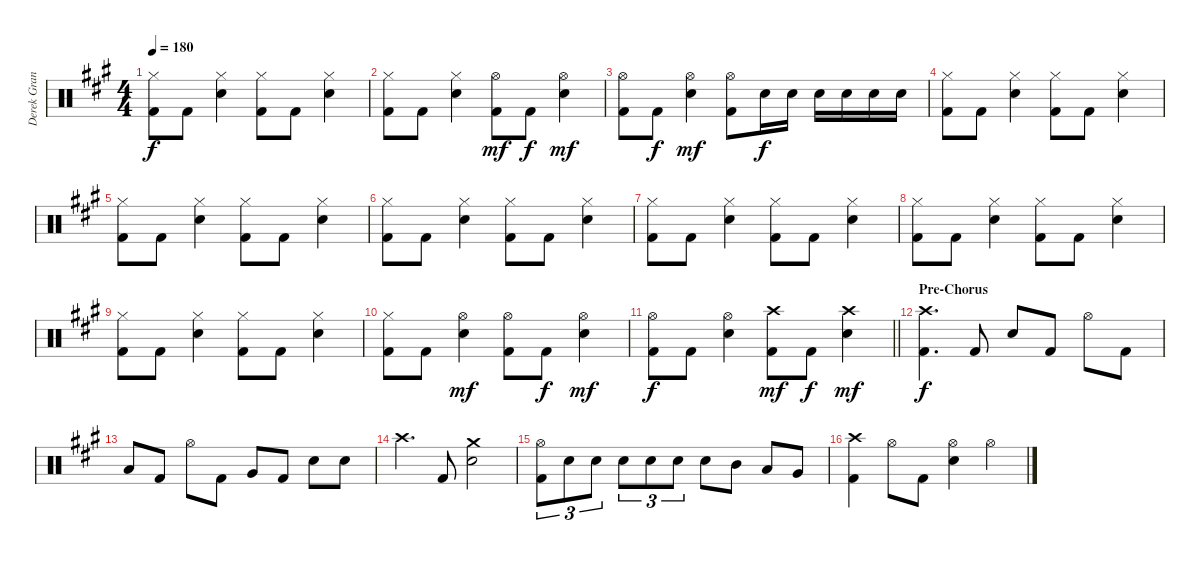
\track ("Derek Grant - Drums" "Derek Gran") {instrument percussion}
\staff {score}
\articulation defaults
\ts (4 4)
\tempo 180
\clef neutral
\ks a
("Kick (hit) 2" "Hi-Hat (closed)").8{dy f} "Kick (hit) 2".8 ("Snare (hit) 2" "Hi-Hat (closed)").4 ("Kick (hit) 2" "Hi-Hat (closed)").8 "Kick (hit) 2".8 ("Snare (hit) 2" "Hi-Hat (closed)").4 |
("Kick (hit) 2" "Hi-Hat (closed)").8 "Kick (hit) 2".8 ("Snare (hit) 2" "Hi-Hat (closed)").4 ("Kick (hit) 2" "Hi-Hat (open)").8{dy mf} "Kick (hit) 2".8{dy f} ("Snare (hit) 2" "Hi-Hat (open)").4{dy mf} |
("Kick (hit) 2" "Hi-Hat (open)").8 "Kick (hit) 2".8{dy f} ("Snare (hit) 2" "Hi-Hat (open)").4{dy mf} ("Hi-Hat (open)" "Kick (hit) 2").8 "Snare (hit) 2".16{dy f} "Snare (hit) 2".16 "Snare (hit) 2".16 "Snare (hit) 2".16 "Snare (hit) 2".16 "Snare (hit) 2".16 |
("Kick (hit) 2" "Hi-Hat (closed)").8 "Kick (hit) 2".8 ("Snare (hit) 2" "Hi-Hat (closed)").4 ("Kick (hit) 2" "Hi-Hat (closed)").8 "Kick (hit) 2".8 ("Snare (hit) 2" "Hi-Hat (closed)").4 |
("Kick (hit) 2" "Hi-Hat (closed)").8 "Kick (hit) 2".8 ("Snare (hit) 2" "Hi-Hat (closed)").4 ("Kick (hit) 2" "Hi-Hat (closed)").8 "Kick (hit) 2".8 ("Snare (hit) 2" "Hi-Hat (closed)").4 |
("Kick (hit) 2" "Hi-Hat (closed)").8 "Kick (hit) 2".8 ("Snare (hit) 2" "Hi-Hat (closed)").4 ("Kick (hit) 2" "Hi-Hat (closed)").8 "Kick (hit) 2".8 ("Snare (hit) 2" "Hi-Hat (closed)").4 |
("Kick (hit) 2" "Hi-Hat (closed)").8 "Kick (hit) 2".8 ("Snare (hit) 2" "Hi-Hat (closed)").4 ("Kick (hit) 2" "Hi-Hat (closed)").8 "Kick (hit) 2".8 ("Snare (hit) 2" "Hi-Hat (closed)").4 |
("Kick (hit) 2" "Hi-Hat (closed)").8 "Kick (hit) 2".8 ("Snare (hit) 2" "Hi-Hat (closed)").4 ("Kick (hit) 2" "Hi-Hat (closed)").8 "Kick (hit) 2".8 ("Snare (hit) 2" "Hi-Hat (closed)").4 |
("Kick (hit) 2" "Hi-Hat (closed)").8 "Kick (hit) 2".8 ("Snare (hit) 2" "Hi-Hat (closed)").4 ("Kick (hit) 2" "Hi-Hat (closed)").8 "Kick (hit) 2".8 ("Snare (hit) 2" "Hi-Hat (closed)").4 |
("Kick (hit) 2" "Hi-Hat (closed)").8 "Kick (hit) 2".8 ("Snare (hit) 2" "Hi-Hat (open)").4{dy mf} ("Kick (hit) 2" "Hi-Hat (open)").8 "Kick (hit) 2".8{dy f} ("Snare (hit) 2" "Hi-Hat (open)").4{dy mf} |
\barLineRight lightlight
("Kick (hit) 2" "Hi-Hat (open)").8{dy f} "Kick (hit) 2".8 ("Snare (hit) 2" "Hi-Hat (open)").4 ("Kick (hit) 2" "Crash high (hit)").8{dy mf} "Kick (hit) 2".8{dy f} ("Snare (hit) 2" "Crash high (hit)").4{dy mf} |
\section ("" "Pre-Chorus")
("Crash high (hit)" "Kick (hit) 2").4{d dy f} "Kick (hit) 2".8 "Snare (hit) 2".8 "Kick (hit) 2".8 "Hi-Hat (open)".8 "Kick (hit) 2".8 |
"Low Tom (hit)".8 "Kick (hit) 2".8 "Hi-Hat (open)".8 "Kick (hit) 2".8 "Very Low Tom (hit)".8 "Kick (hit) 2".8 "Snare (hit) 2".8 "Snare (hit) 2".8 |
"Crash high (hit)".4{d} "Kick (hit) 2".8 ("Crash medium (hit)" "Snare (hit) 2").2 |
("Kick (hit) 2" "Hi-Hat (open)").8{tu (3 2)} "Snare (hit) 2".8{tu (3 2)} "Snare (hit) 2".8{tu (3 2)} "Snare (hit) 2".8{tu (3 2)} "Snare (hit) 2".8{tu (3 2)} "Snare (hit) 2".8{tu (3 2)} "Snare (hit) 2".8 "Mid Tom (hit)".8 "Low Tom (hit)".8 "Very Low Tom (hit)".8 |
("Crash high (hit)" "Kick (hit) 2").4 "Hi-Hat (open)".8 "Kick (hit) 2".8 ("Snare (hit) 2" "Hi-Hat (open)").4 "Hi-Hat (open)".4
